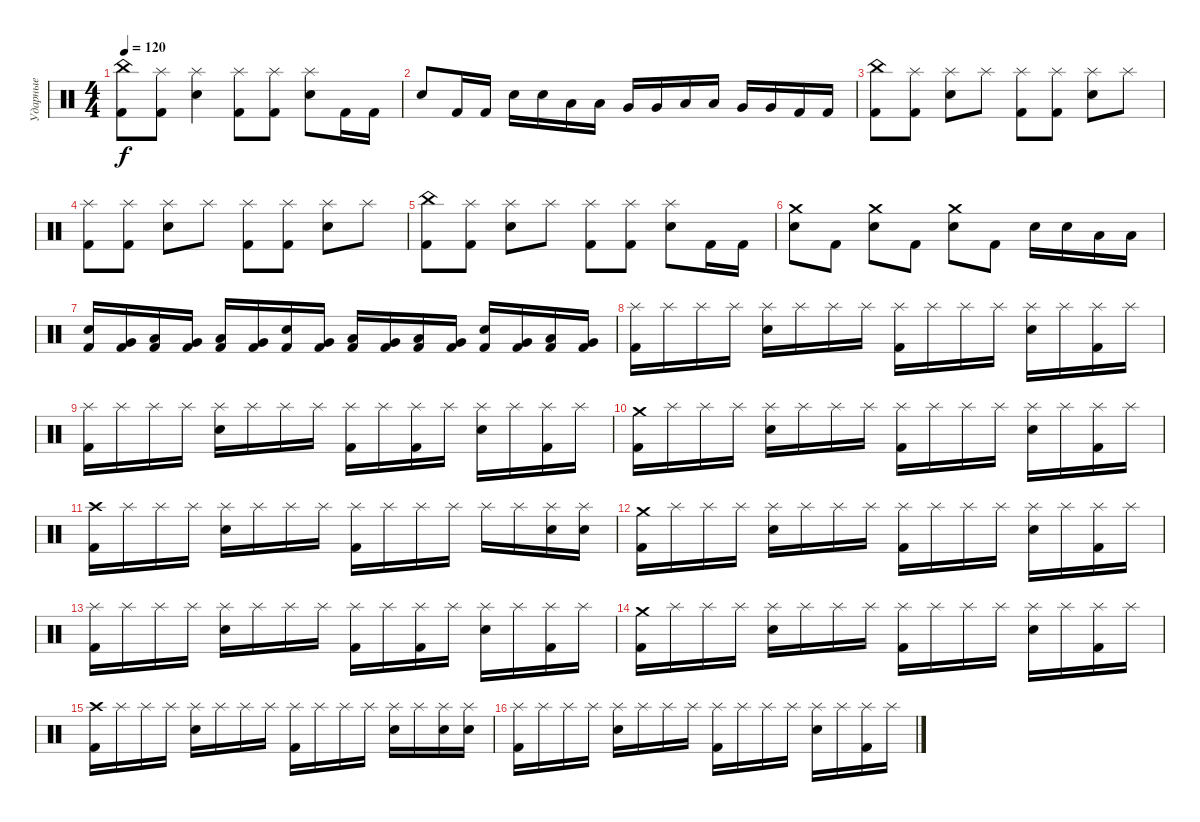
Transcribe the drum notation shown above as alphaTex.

\track ("Ударные" "Ударные") {instrument percussion}
\staff {score}
\articulation defaults
\ts (4 4)
\tempo 120
\clef neutral
\ks c
("China (hit)" "Kick (hit) 2").8{dy f} ("Splash (hit)" "Kick (hit) 2").8 ("Splash (hit)" "Electric Snare (hit)").4 ("Splash (hit)" "Kick (hit) 2").8 ("Splash (hit)" "Kick (hit) 2").8 ("Splash (hit)" "Electric Snare (hit)").8 "Kick (hit) 2".16 "Kick (hit) 2".16 |
"Electric Snare (hit)".8 "Kick (hit) 2".16 "Kick (hit) 2".16 "Electric Snare (hit)".16 "Electric Snare (hit)".16 "Low Tom (hit)".16 "Low Tom (hit)".16 "Very Low Tom (hit)".16 "Very Low Tom (hit)".16 "Low Tom (hit)".16 "Low Tom (hit)".16 "Very Low Tom (hit)".16 "Very Low Tom (hit)".16 "Kick (hit) 2".16 "Kick (hit) 2".16 |
("China (hit)" "Kick (hit) 2").8 ("Splash (hit)" "Kick (hit) 2").8 ("Splash (hit)" "Electric Snare (hit)").8 "Splash (hit)".8 ("Splash (hit)" "Kick (hit) 2").8 ("Splash (hit)" "Kick (hit) 2").8 ("Splash (hit)" "Electric Snare (hit)").8 "Splash (hit)".8 |
("Splash (hit)" "Kick (hit) 2").8 ("Splash (hit)" "Kick (hit) 2").8 ("Splash (hit)" "Electric Snare (hit)").8 "Splash (hit)".8 ("Splash (hit)" "Kick (hit) 2").8 ("Splash (hit)" "Kick (hit) 2").8 ("Splash (hit)" "Electric Snare (hit)").8 "Splash (hit)".8 |
("China (hit)" "Kick (hit) 2").8 ("Splash (hit)" "Kick (hit) 2").8 ("Splash (hit)" "Electric Snare (hit)").8 "Splash (hit)".8 ("Splash (hit)" "Kick (hit) 2").8 ("Splash (hit)" "Kick (hit) 2").8 ("Splash (hit)" "Electric Snare (hit)").8 "Kick (hit) 2".16 "Kick (hit) 2".16 |
("Crash medium (hit)" "Electric Snare (hit)").8 "Kick (hit) 2".8 ("Crash medium (hit)" "Electric Snare (hit)").8 "Kick (hit) 2".8 ("Crash medium (hit)" "Electric Snare (hit)").8 "Kick (hit) 2".8 "Electric Snare (hit)".16 "Electric Snare (hit)".16 "Low Tom (hit)".16 "Low Tom (hit)".16 |
("Electric Snare (hit)" "Kick (hit) 2").16 ("Very Low Tom (hit)" "Kick (hit) 2").16 ("Low Tom (hit)" "Kick (hit) 2").16 ("Very Low Tom (hit)" "Kick (hit) 2").16 ("Low Tom (hit)" "Kick (hit) 2").16 ("Very Low Tom (hit)" "Kick (hit) 2").16 ("Electric Snare (hit)" "Kick (hit) 2").16 ("Very Low Tom (hit)" "Kick (hit) 2").16 ("Low Tom (hit)" "Kick (hit) 2").16 ("Very Low Tom (hit)" "Kick (hit) 2").16 ("Low Tom (hit)" "Kick (hit) 2").16 ("Very Low Tom (hit)" "Kick (hit) 2").16 ("Electric Snare (hit)" "Kick (hit) 2").16 ("Very Low Tom (hit)" "Kick (hit) 2").16 ("Low Tom (hit)" "Kick (hit) 2").16 ("Very Low Tom (hit)" "Kick (hit) 2").16 |
("Splash (hit)" "Kick (hit) 2").16 "Splash (hit)".16 "Splash (hit)".16 "Splash (hit)".16 ("Splash (hit)" "Electric Snare (hit)").16 "Splash (hit)".16 "Splash (hit)".16 "Splash (hit)".16 ("Splash (hit)" "Kick (hit) 2").16 "Splash (hit)".16 "Splash (hit)".16 "Splash (hit)".16 ("Splash (hit)" "Electric Snare (hit)").16 "Splash (hit)".16 ("Splash (hit)" "Kick (hit) 2").16 "Splash (hit)".16 |
("Splash (hit)" "Kick (hit) 2").16 "Splash (hit)".16 "Splash (hit)".16 "Splash (hit)".16 ("Splash (hit)" "Electric Snare (hit)").16 "Splash (hit)".16 "Splash (hit)".16 "Splash (hit)".16 ("Splash (hit)" "Kick (hit) 2").16 "Splash (hit)".16 ("Splash (hit)" "Kick (hit) 2").16 "Splash (hit)".16 ("Splash (hit)" "Electric Snare (hit)").16 "Splash (hit)".16 ("Splash (hit)" "Kick (hit) 2").16 "Splash (hit)".16 |
("Crash medium (hit)" "Kick (hit) 2").16 "Splash (hit)".16 "Splash (hit)".16 "Splash (hit)".16 ("Splash (hit)" "Electric Snare (hit)").16 "Splash (hit)".16 "Splash (hit)".16 "Splash (hit)".16 ("Splash (hit)" "Kick (hit) 2").16 "Splash (hit)".16 "Splash (hit)".16 "Splash (hit)".16 ("Splash (hit)" "Electric Snare (hit)").16 "Splash (hit)".16 ("Splash (hit)" "Kick (hit) 2").16 "Splash (hit)".16 |
("Crash high (hit)" "Kick (hit) 2").16 "Splash (hit)".16 "Splash (hit)".16 "Splash (hit)".16 ("Splash (hit)" "Electric Snare (hit)").16 "Splash (hit)".16 "Splash (hit)".16 "Splash (hit)".16 ("Splash (hit)" "Kick (hit) 2").16 "Splash (hit)".16 "Splash (hit)".16 "Splash (hit)".16 "Splash (hit)".16 "Splash (hit)".16 ("Splash (hit)" "Electric Snare (hit)").16 ("Splash (hit)" "Electric Snare (hit)").16 |
("Crash medium (hit)" "Kick (hit) 2").16 "Splash (hit)".16 "Splash (hit)".16 "Splash (hit)".16 ("Splash (hit)" "Electric Snare (hit)").16 "Splash (hit)".16 "Splash (hit)".16 "Splash (hit)".16 ("Splash (hit)" "Kick (hit) 2").16 "Splash (hit)".16 "Splash (hit)".16 "Splash (hit)".16 ("Splash (hit)" "Electric Snare (hit)").16 "Splash (hit)".16 ("Splash (hit)" "Kick (hit) 2").16 "Splash (hit)".16 |
("Splash (hit)" "Kick (hit) 2").16 "Splash (hit)".16 "Splash (hit)".16 "Splash (hit)".16 ("Splash (hit)" "Electric Snare (hit)").16 "Splash (hit)".16 "Splash (hit)".16 "Splash (hit)".16 ("Splash (hit)" "Kick (hit) 2").16 "Splash (hit)".16 ("Splash (hit)" "Kick (hit) 2").16 "Splash (hit)".16 ("Splash (hit)" "Electric Snare (hit)").16 "Splash (hit)".16 ("Splash (hit)" "Kick (hit) 2").16 "Splash (hit)".16 |
("Crash medium (hit)" "Kick (hit) 2").16 "Splash (hit)".16 "Splash (hit)".16 "Splash (hit)".16 ("Splash (hit)" "Electric Snare (hit)").16 "Splash (hit)".16 "Splash (hit)".16 "Splash (hit)".16 ("Splash (hit)" "Kick (hit) 2").16 "Splash (hit)".16 "Splash (hit)".16 "Splash (hit)".16 ("Splash (hit)" "Electric Snare (hit)").16 "Splash (hit)".16 ("Splash (hit)" "Kick (hit) 2").16 "Splash (hit)".16 |
("Crash high (hit)" "Kick (hit) 2").16 "Splash (hit)".16 "Splash (hit)".16 "Splash (hit)".16 ("Splash (hit)" "Electric Snare (hit)").16 "Splash (hit)".16 "Splash (hit)".16 "Splash (hit)".16 ("Splash (hit)" "Kick (hit) 2").16 "Splash (hit)".16 "Splash (hit)".16 "Splash (hit)".16 ("Splash (hit)" "Electric Snare (hit)").16 "Splash (hit)".16 ("Splash (hit)" "Electric Snare (hit)").16 ("Splash (hit)" "Electric Snare (hit)").16 |
("Splash (hit)" "Kick (hit) 2").16 "Splash (hit)".16 "Splash (hit)".16 "Splash (hit)".16 ("Splash (hit)" "Electric Snare (hit)").16 "Splash (hit)".16 "Splash (hit)".16 "Splash (hit)".16 ("Splash (hit)" "Kick (hit) 2").16 "Splash (hit)".16 "Splash (hit)".16 "Splash (hit)".16 ("Splash (hit)" "Electric Snare (hit)").16 "Splash (hit)".16 ("Splash (hit)" "Kick (hit) 2").16 "Splash (hit)".16
